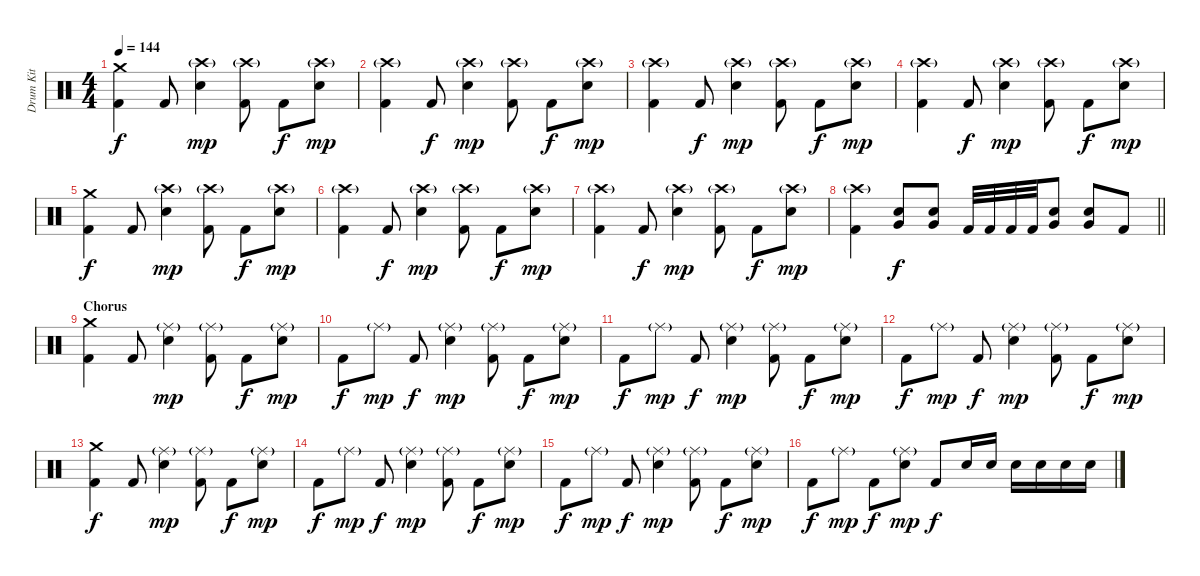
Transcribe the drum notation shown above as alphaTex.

\track ("Drum Kit" "Drum Kit") {instrument percussion}
\staff {score}
\articulation defaults
\ts (4 4)
\tempo 144
\clef neutral
\ks c
("Crash medium (hit)" "Kick (hit) 2").4{dy f} "Kick (hit) 2".8 ("Crash high (hit)"{g} "Electric Snare (hit)").4{dy mp} ("Crash high (hit)"{g} "Kick (hit) 2").8 "Kick (hit) 2".8{dy f} ("Crash high (hit)"{g} "Electric Snare (hit)").8{dy mp} |
("Crash high (hit)"{g} "Kick (hit) 2").4 "Kick (hit) 2".8{dy f} ("Crash high (hit)"{g} "Electric Snare (hit)").4{dy mp} ("Crash high (hit)"{g} "Kick (hit) 2").8 "Kick (hit) 2".8{dy f} ("Crash high (hit)"{g} "Electric Snare (hit)").8{dy mp} |
("Crash high (hit)"{g} "Kick (hit) 2").4 "Kick (hit) 2".8{dy f} ("Crash high (hit)"{g} "Electric Snare (hit)").4{dy mp} ("Crash high (hit)"{g} "Kick (hit) 2").8 "Kick (hit) 2".8{dy f} ("Crash high (hit)"{g} "Electric Snare (hit)").8{dy mp} |
("Crash high (hit)"{g} "Kick (hit) 2").4 "Kick (hit) 2".8{dy f} ("Crash high (hit)"{g} "Electric Snare (hit)").4{dy mp} ("Crash high (hit)"{g} "Kick (hit) 2").8 "Kick (hit) 2".8{dy f} ("Crash high (hit)"{g} "Electric Snare (hit)").8{dy mp} |
("Crash medium (hit)" "Kick (hit) 2").4{dy f} "Kick (hit) 2".8 ("Crash high (hit)"{g} "Electric Snare (hit)").4{dy mp} ("Crash high (hit)"{g} "Kick (hit) 2").8 "Kick (hit) 2".8{dy f} ("Crash high (hit)"{g} "Electric Snare (hit)").8{dy mp} |
("Crash high (hit)"{g} "Kick (hit) 2").4 "Kick (hit) 2".8{dy f} ("Crash high (hit)"{g} "Electric Snare (hit)").4{dy mp} ("Crash high (hit)"{g} "Kick (hit) 2").8 "Kick (hit) 2".8{dy f} ("Crash high (hit)"{g} "Electric Snare (hit)").8{dy mp} |
("Crash high (hit)"{g} "Kick (hit) 2").4 "Kick (hit) 2".8{dy f} ("Crash high (hit)"{g} "Electric Snare (hit)").4{dy mp} ("Crash high (hit)"{g} "Kick (hit) 2").8 "Kick (hit) 2".8{dy f} ("Crash high (hit)"{g} "Electric Snare (hit)").8{dy mp} |
\barLineRight lightlight
("Crash high (hit)"{g} "Kick (hit) 2").4 ("Very Low Tom (hit)" "Electric Snare (hit)").8{dy f} ("Very Low Tom (hit)" "Electric Snare (hit)").8 "Kick (hit) 2".32 "Kick (hit) 2".32 "Kick (hit) 2".32 "Kick (hit) 2".32 ("Very Low Tom (hit)" "Electric Snare (hit)").8 ("Very Low Tom (hit)" "Electric Snare (hit)").8 "Kick (hit) 2".8 |
\section ("" "Chorus")
("Crash medium (hit)" "Kick (hit) 2").4 "Kick (hit) 2".8 ("Ride (middle)"{g} "Electric Snare (hit)").4{dy mp} ("Ride (middle)"{g} "Kick (hit) 2").8 "Kick (hit) 2".8{dy f} ("Ride (middle)"{g} "Electric Snare (hit)").8{dy mp} |
"Kick (hit) 2".8{dy f} "Ride (middle)"{g}.8{dy mp} "Kick (hit) 2".8{dy f} ("Ride (middle)"{g} "Electric Snare (hit)").4{dy mp} ("Ride (middle)"{g} "Kick (hit) 2").8 "Kick (hit) 2".8{dy f} ("Ride (middle)"{g} "Electric Snare (hit)").8{dy mp} |
"Kick (hit) 2".8{dy f} "Ride (middle)"{g}.8{dy mp} "Kick (hit) 2".8{dy f} ("Ride (middle)"{g} "Electric Snare (hit)").4{dy mp} ("Ride (middle)"{g} "Kick (hit) 2").8 "Kick (hit) 2".8{dy f} ("Ride (middle)"{g} "Electric Snare (hit)").8{dy mp} |
"Kick (hit) 2".8{dy f} "Ride (middle)"{g}.8{dy mp} "Kick (hit) 2".8{dy f} ("Ride (middle)"{g} "Electric Snare (hit)").4{dy mp} ("Ride (middle)"{g} "Kick (hit) 2").8 "Kick (hit) 2".8{dy f} ("Ride (middle)"{g} "Electric Snare (hit)").8{dy mp} |
("Crash medium (hit)" "Kick (hit) 2").4{dy f} "Kick (hit) 2".8 ("Ride (middle)"{g} "Electric Snare (hit)").4{dy mp} ("Ride (middle)"{g} "Kick (hit) 2").8 "Kick (hit) 2".8{dy f} ("Ride (middle)"{g} "Electric Snare (hit)").8{dy mp} |
"Kick (hit) 2".8{dy f} "Ride (middle)"{g}.8{dy mp} "Kick (hit) 2".8{dy f} ("Ride (middle)"{g} "Electric Snare (hit)").4{dy mp} ("Ride (middle)"{g} "Kick (hit) 2").8 "Kick (hit) 2".8{dy f} ("Ride (middle)"{g} "Electric Snare (hit)").8{dy mp} |
"Kick (hit) 2".8{dy f} "Ride (middle)"{g}.8{dy mp} "Kick (hit) 2".8{dy f} ("Ride (middle)"{g} "Electric Snare (hit)").4{dy mp} ("Ride (middle)"{g} "Kick (hit) 2").8 "Kick (hit) 2".8{dy f} ("Ride (middle)"{g} "Electric Snare (hit)").8{dy mp} |
"Kick (hit) 2".8{dy f} "Ride (middle)"{g}.8{dy mp} "Kick (hit) 2".8{dy f} ("Ride (middle)"{g} "Electric Snare (hit)").8{dy mp} "Kick (hit) 2".8{dy f} "Electric Snare (hit)".16 "Electric Snare (hit)".16 "Electric Snare (hit)".16 "Electric Snare (hit)".16 "Electric Snare (hit)".16 "Electric Snare (hit)".16
